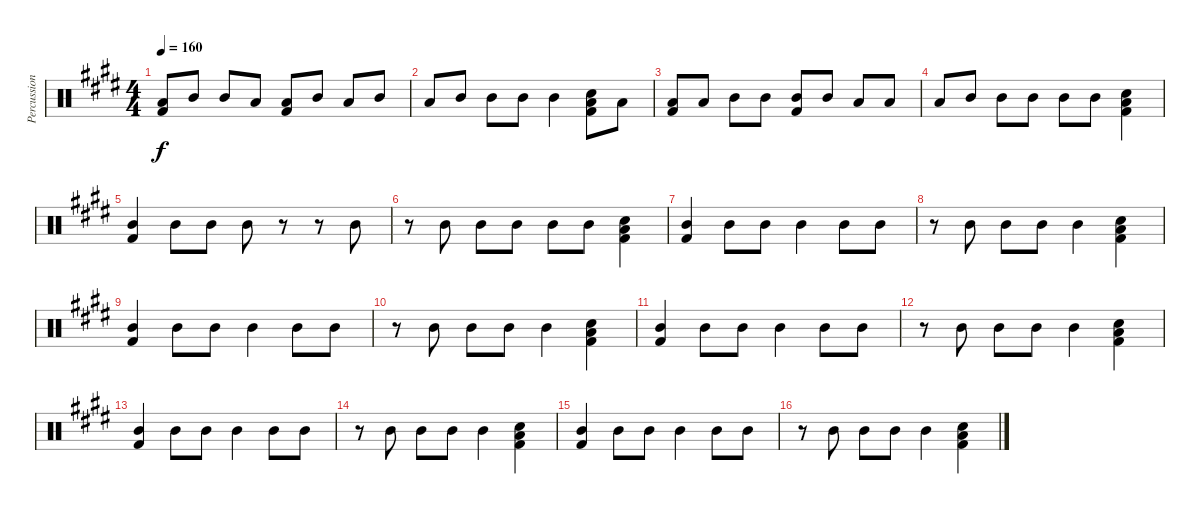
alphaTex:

\track ("Percussion" "Percussion") {instrument percussion}
\staff {score}
\articulation defaults
\ts (4 4)
\tempo 160
\clef neutral
\ks e
("Low Floor Tom (hit)" "Kick (hit) 2").8{dy f} "Mid Tom (hit)".8 "Mid Tom (hit)".8 "Low Floor Tom (hit)".8 ("Low Floor Tom (hit)" "Kick (hit) 2").8 "Mid Tom (hit)".8 "Low Floor Tom (hit)".8 "Mid Tom (hit)".8 |
"Low Floor Tom (hit)".8 "Mid Tom (hit)".8 "Mid Tom (hit)".8 "Mid Tom (hit)".8 "Mid Tom (hit)".4 ("Snare (hit) 2" "Low Floor Tom (hit)" "Kick (hit) 2").8 "Low Floor Tom (hit)".8 |
("Low Floor Tom (hit)" "Kick (hit) 2").8 "Low Floor Tom (hit)".8 "Mid Tom (hit)".8 "Mid Tom (hit)".8 ("Mid Tom (hit)" "Kick (hit) 2").8 "Mid Tom (hit)".8 "Low Floor Tom (hit)".8 "Low Floor Tom (hit)".8 |
"Low Floor Tom (hit)".8 "Mid Tom (hit)".8 "Mid Tom (hit)".8 "Mid Tom (hit)".8 "Mid Tom (hit)".8 "Mid Tom (hit)".8 ("Snare (hit) 2" "Low Floor Tom (hit)" "Kick (hit) 2").4 |
("Mid Tom (hit)" "Kick (hit) 2").4 "Mid Tom (hit)".8 "Mid Tom (hit)".8 "Mid Tom (hit)".8 r.8 r.8 "Mid Tom (hit)".8 |
r.8 "Mid Tom (hit)".8 "Mid Tom (hit)".8 "Mid Tom (hit)".8 "Mid Tom (hit)".8 "Mid Tom (hit)".8 ("Snare (hit) 2" "Low Floor Tom (hit)" "Kick (hit) 2").4 |
("Mid Tom (hit)" "Kick (hit) 2").4 "Mid Tom (hit)".8 "Mid Tom (hit)".8 "Mid Tom (hit)".4 "Mid Tom (hit)".8 "Mid Tom (hit)".8 |
r.8 "Mid Tom (hit)".8 "Mid Tom (hit)".8 "Mid Tom (hit)".8 "Mid Tom (hit)".4 ("Snare (hit) 2" "Low Floor Tom (hit)" "Kick (hit) 2").4 |
("Mid Tom (hit)" "Kick (hit) 2").4 "Mid Tom (hit)".8 "Mid Tom (hit)".8 "Mid Tom (hit)".4 "Mid Tom (hit)".8 "Mid Tom (hit)".8 |
r.8 "Mid Tom (hit)".8 "Mid Tom (hit)".8 "Mid Tom (hit)".8 "Mid Tom (hit)".4 ("Snare (hit) 2" "Low Floor Tom (hit)" "Kick (hit) 2").4 |
("Mid Tom (hit)" "Kick (hit) 2").4 "Mid Tom (hit)".8 "Mid Tom (hit)".8 "Mid Tom (hit)".4 "Mid Tom (hit)".8 "Mid Tom (hit)".8 |
r.8 "Mid Tom (hit)".8 "Mid Tom (hit)".8 "Mid Tom (hit)".8 "Mid Tom (hit)".4 ("Snare (hit) 2" "Low Floor Tom (hit)" "Kick (hit) 2").4 |
("Mid Tom (hit)" "Kick (hit) 2").4 "Mid Tom (hit)".8 "Mid Tom (hit)".8 "Mid Tom (hit)".4 "Mid Tom (hit)".8 "Mid Tom (hit)".8 |
r.8 "Mid Tom (hit)".8 "Mid Tom (hit)".8 "Mid Tom (hit)".8 "Mid Tom (hit)".4 ("Snare (hit) 2" "Low Floor Tom (hit)" "Kick (hit) 2").4 |
("Mid Tom (hit)" "Kick (hit) 2").4 "Mid Tom (hit)".8 "Mid Tom (hit)".8 "Mid Tom (hit)".4 "Mid Tom (hit)".8 "Mid Tom (hit)".8 |
r.8 "Mid Tom (hit)".8 "Mid Tom (hit)".8 "Mid Tom (hit)".8 "Mid Tom (hit)".4 ("Snare (hit) 2" "Low Floor Tom (hit)" "Kick (hit) 2").4
